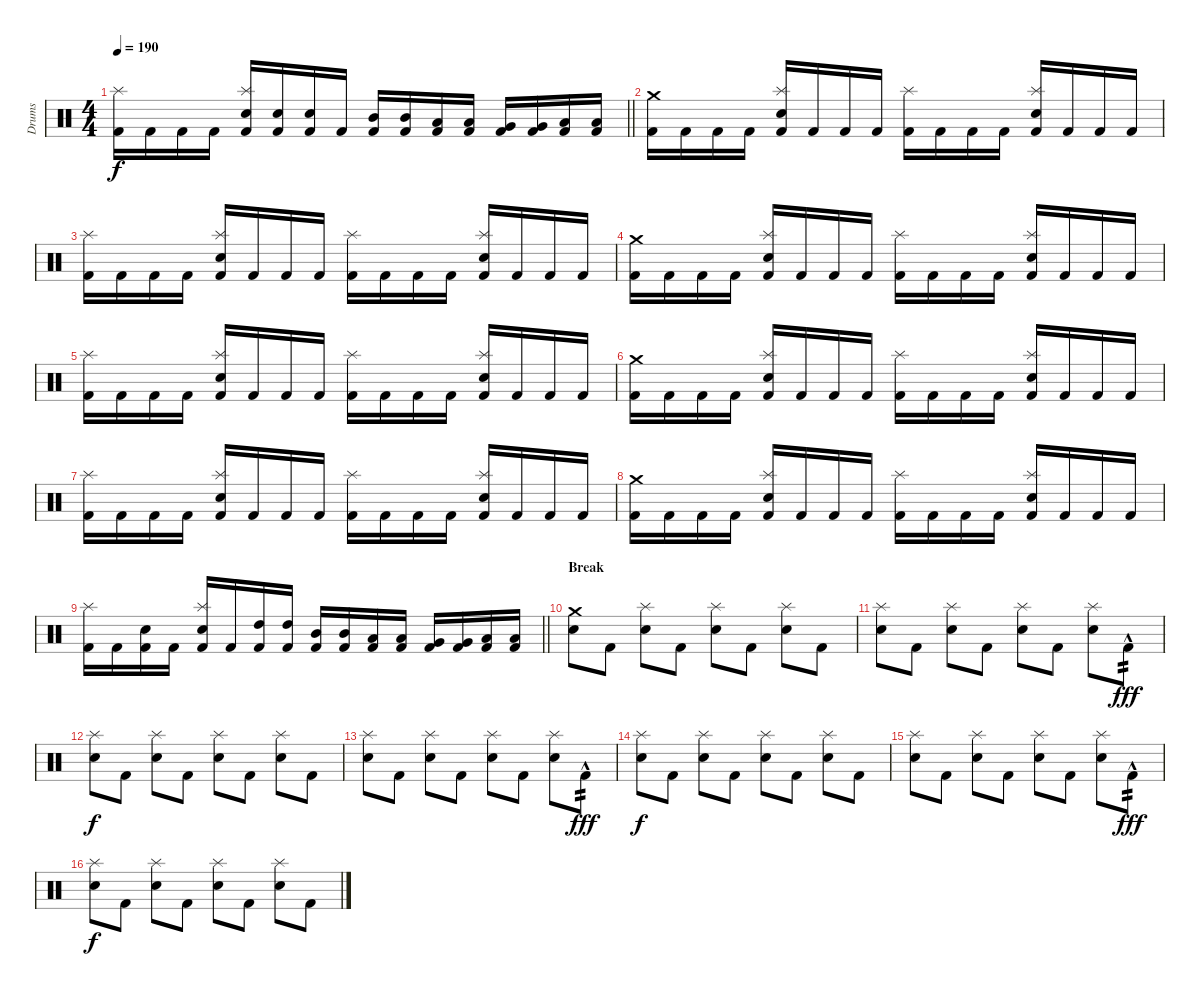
\track ("Drums" "Drums") {instrument percussion}
\staff {score}
\articulation defaults
\ts (4 4)
\tempo 190
\clef neutral
\barLineRight lightlight
\ks c
("Kick (hit) 2" "Splash (hit)").16{dy f} "Kick (hit) 2".16 "Kick (hit) 2".16 "Kick (hit) 2".16 ("Kick (hit) 2" "Snare (hit) 2" "Splash (hit)").16 ("Kick (hit) 2" "Snare (hit) 2").16 ("Kick (hit) 2" "Snare (hit) 2").16 "Kick (hit) 2".16 ("Kick (hit) 2" "Mid Tom (hit)").16 ("Kick (hit) 2" "Mid Tom (hit)").16 ("Kick (hit) 2" "Low Tom (hit)").16 ("Kick (hit) 2" "Low Tom (hit)").16 ("Kick (hit) 2" "Very Low Tom (hit)").16 ("Kick (hit) 2" "Very Low Tom (hit)").16 ("Kick (hit) 2" "Low Floor Tom (hit)").16 ("Kick (hit) 2" "Low Floor Tom (hit)").16 |
\section ("" "")
("Kick (hit) 2" "Crash medium (hit)").16 "Kick (hit) 2".16 "Kick (hit) 2".16 "Kick (hit) 2".16 ("Kick (hit) 2" "Snare (hit) 2" "Splash (hit)").16 "Kick (hit) 2".16 "Kick (hit) 2".16 "Kick (hit) 2".16 ("Kick (hit) 2" "Splash (hit)").16 "Kick (hit) 2".16 "Kick (hit) 2".16 "Kick (hit) 2".16 ("Kick (hit) 2" "Snare (hit) 2" "Splash (hit)").16 "Kick (hit) 2".16 "Kick (hit) 2".16 "Kick (hit) 2".16 |
("Kick (hit) 2" "Splash (hit)").16 "Kick (hit) 2".16 "Kick (hit) 2".16 "Kick (hit) 2".16 ("Kick (hit) 2" "Snare (hit) 2" "Splash (hit)").16 "Kick (hit) 2".16 "Kick (hit) 2".16 "Kick (hit) 2".16 ("Kick (hit) 2" "Splash (hit)").16 "Kick (hit) 2".16 "Kick (hit) 2".16 "Kick (hit) 2".16 ("Kick (hit) 2" "Snare (hit) 2" "Splash (hit)").16 "Kick (hit) 2".16 "Kick (hit) 2".16 "Kick (hit) 2".16 |
("Kick (hit) 2" "Crash medium (hit)").16 "Kick (hit) 2".16 "Kick (hit) 2".16 "Kick (hit) 2".16 ("Kick (hit) 2" "Snare (hit) 2" "Splash (hit)").16 "Kick (hit) 2".16 "Kick (hit) 2".16 "Kick (hit) 2".16 ("Kick (hit) 2" "Splash (hit)").16 "Kick (hit) 2".16 "Kick (hit) 2".16 "Kick (hit) 2".16 ("Kick (hit) 2" "Snare (hit) 2" "Splash (hit)").16 "Kick (hit) 2".16 "Kick (hit) 2".16 "Kick (hit) 2".16 |
("Kick (hit) 2" "Splash (hit)").16 "Kick (hit) 2".16 "Kick (hit) 2".16 "Kick (hit) 2".16 ("Kick (hit) 2" "Snare (hit) 2" "Splash (hit)").16 "Kick (hit) 2".16 "Kick (hit) 2".16 "Kick (hit) 2".16 ("Kick (hit) 2" "Splash (hit)").16 "Kick (hit) 2".16 "Kick (hit) 2".16 "Kick (hit) 2".16 ("Kick (hit) 2" "Snare (hit) 2" "Splash (hit)").16 "Kick (hit) 2".16 "Kick (hit) 2".16 "Kick (hit) 2".16 |
("Kick (hit) 2" "Crash medium (hit)").16 "Kick (hit) 2".16 "Kick (hit) 2".16 "Kick (hit) 2".16 ("Kick (hit) 2" "Snare (hit) 2" "Splash (hit)").16 "Kick (hit) 2".16 "Kick (hit) 2".16 "Kick (hit) 2".16 ("Kick (hit) 2" "Splash (hit)").16 "Kick (hit) 2".16 "Kick (hit) 2".16 "Kick (hit) 2".16 ("Kick (hit) 2" "Snare (hit) 2" "Splash (hit)").16 "Kick (hit) 2".16 "Kick (hit) 2".16 "Kick (hit) 2".16 |
("Kick (hit) 2" "Splash (hit)").16 "Kick (hit) 2".16 "Kick (hit) 2".16 "Kick (hit) 2".16 ("Kick (hit) 2" "Snare (hit) 2" "Splash (hit)").16 "Kick (hit) 2".16 "Kick (hit) 2".16 "Kick (hit) 2".16 ("Kick (hit) 2" "Splash (hit)").16 "Kick (hit) 2".16 "Kick (hit) 2".16 "Kick (hit) 2".16 ("Kick (hit) 2" "Snare (hit) 2" "Splash (hit)").16 "Kick (hit) 2".16 "Kick (hit) 2".16 "Kick (hit) 2".16 |
("Kick (hit) 2" "Crash medium (hit)").16 "Kick (hit) 2".16 "Kick (hit) 2".16 "Kick (hit) 2".16 ("Kick (hit) 2" "Snare (hit) 2" "Splash (hit)").16 "Kick (hit) 2".16 "Kick (hit) 2".16 "Kick (hit) 2".16 ("Kick (hit) 2" "Splash (hit)").16 "Kick (hit) 2".16 "Kick (hit) 2".16 "Kick (hit) 2".16 ("Kick (hit) 2" "Snare (hit) 2" "Splash (hit)").16 "Kick (hit) 2".16 "Kick (hit) 2".16 "Kick (hit) 2".16 |
\barLineRight lightlight
("Kick (hit) 2" "Splash (hit)").16 "Kick (hit) 2".16 ("Kick (hit) 2" "Snare (hit) 2").16 "Kick (hit) 2".16 ("Kick (hit) 2" "Snare (hit) 2" "Splash (hit)").16 "Kick (hit) 2".16 ("Kick (hit) 2" "High Tom (hit)").16 ("Kick (hit) 2" "High Tom (hit)").16 ("Kick (hit) 2" "Mid Tom (hit)").16 ("Kick (hit) 2" "Mid Tom (hit)").16 ("Kick (hit) 2" "Low Tom (hit)").16 ("Kick (hit) 2" "Low Tom (hit)").16 ("Kick (hit) 2" "Very Low Tom (hit)").16 ("Kick (hit) 2" "Very Low Tom (hit)").16 ("Kick (hit) 2" "Low Floor Tom (hit)").16 ("Kick (hit) 2" "Low Floor Tom (hit)").16 |
\section ("" "Break")
("Snare (hit) 2" "Crash medium (hit)").8 "Kick (hit) 2".8 ("Snare (hit) 2" "Splash (hit)").8 "Kick (hit) 2".8 ("Snare (hit) 2" "Splash (hit)").8 "Kick (hit) 2".8 ("Snare (hit) 2" "Splash (hit)").8 "Kick (hit) 2".8 |
("Snare (hit) 2" "Splash (hit)").8 "Kick (hit) 2".8 ("Snare (hit) 2" "Splash (hit)").8 "Kick (hit) 2".8 ("Snare (hit) 2" "Splash (hit)").8 "Kick (hit) 2".8 ("Snare (hit) 2" "Splash (hit)").8 "Kick (hit) 2"{hac}.8{tp 2 dy fff} |
("Snare (hit) 2" "Splash (hit)").8{dy f} "Kick (hit) 2".8 ("Snare (hit) 2" "Splash (hit)").8 "Kick (hit) 2".8 ("Snare (hit) 2" "Splash (hit)").8 "Kick (hit) 2".8 ("Snare (hit) 2" "Splash (hit)").8 "Kick (hit) 2".8 |
("Snare (hit) 2" "Splash (hit)").8 "Kick (hit) 2".8 ("Snare (hit) 2" "Splash (hit)").8 "Kick (hit) 2".8 ("Snare (hit) 2" "Splash (hit)").8 "Kick (hit) 2".8 ("Snare (hit) 2" "Splash (hit)").8 "Kick (hit) 2"{hac}.8{tp 2 dy fff} |
("Snare (hit) 2" "Splash (hit)").8{dy f} "Kick (hit) 2".8 ("Snare (hit) 2" "Splash (hit)").8 "Kick (hit) 2".8 ("Snare (hit) 2" "Splash (hit)").8 "Kick (hit) 2".8 ("Snare (hit) 2" "Splash (hit)").8 "Kick (hit) 2".8 |
("Snare (hit) 2" "Splash (hit)").8 "Kick (hit) 2".8 ("Snare (hit) 2" "Splash (hit)").8 "Kick (hit) 2".8 ("Snare (hit) 2" "Splash (hit)").8 "Kick (hit) 2".8 ("Snare (hit) 2" "Splash (hit)").8 "Kick (hit) 2"{hac}.8{tp 2 dy fff} |
("Snare (hit) 2" "Splash (hit)").8{dy f} "Kick (hit) 2".8 ("Snare (hit) 2" "Splash (hit)").8 "Kick (hit) 2".8 ("Snare (hit) 2" "Splash (hit)").8 "Kick (hit) 2".8 ("Snare (hit) 2" "Splash (hit)").8 "Kick (hit) 2".8
